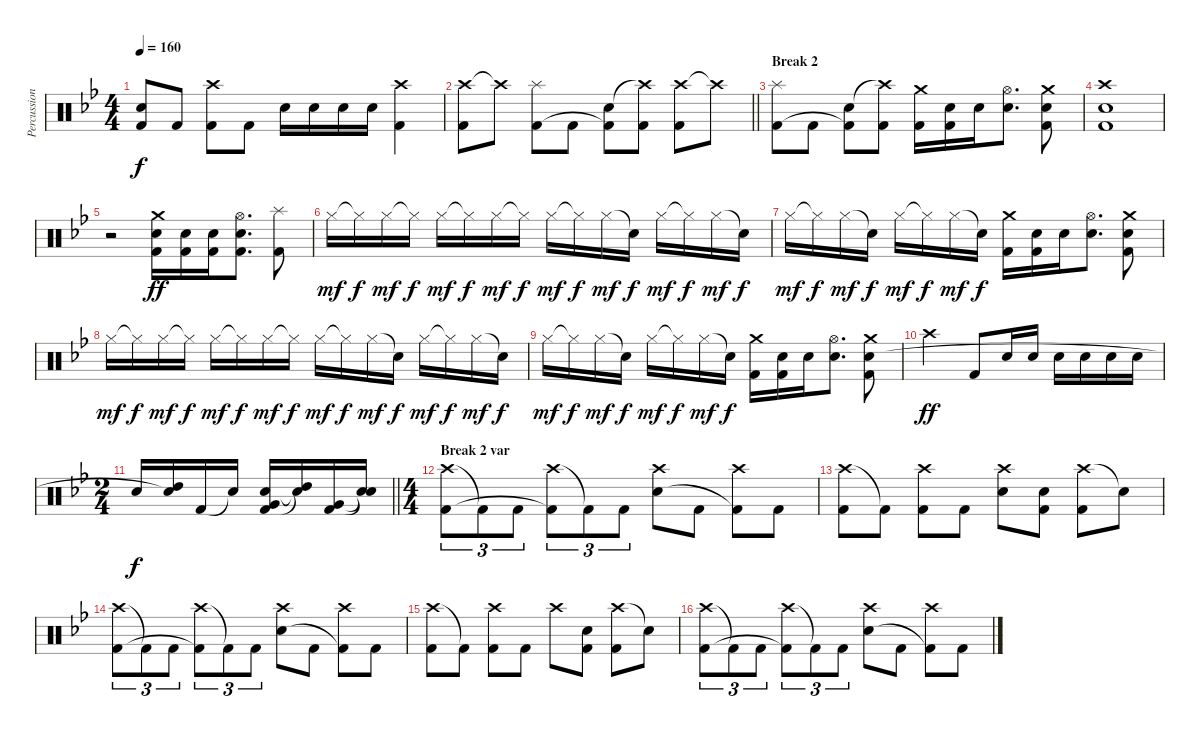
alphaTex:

\track ("Percussion" "Percussion") {instrument percussion}
\staff {score}
\articulation defaults
\ts (4 4)
\tempo 160
\clef neutral
\ks bb
("Electric Snare (hit)" "Kick (hit) 2"{t}).8{dy f} "Kick (hit) 2".8 ("Crash high (hit)" "Kick (hit) 2").8 "Kick (hit) 2".8 "Electric Snare (hit)".16 "Electric Snare (hit)".16 "Electric Snare (hit)".16 "Electric Snare (hit)".16 ("Crash high (hit)" "Kick (hit) 2").4 |
\barLineRight lightlight
("Crash high (hit)" "Kick (hit) 2").8 "Crash high (hit)"{t}.8 ("Splash (hit)" "Kick (hit) 2").8 "Kick (hit) 2".8 ("Electric Snare (hit)" "Kick (hit) 2"{t}).8 ("Crash high (hit)"{t} "Kick (hit) 2").8 ("Crash high (hit)" "Kick (hit) 2").8 "Crash high (hit)"{t}.8 |
\section ("" "Break 2")
("Splash (hit)" "Kick (hit) 2").8 "Kick (hit) 2".8 ("Electric Snare (hit)" "Kick (hit) 2"{t}).8 ("Crash high (hit)"{t} "Kick (hit) 2").8 ("Crash medium (hit)" "Kick (hit) 2").16 ("Kick (hit) 2" "Electric Snare (hit)").16 "Electric Snare (hit)".16 ("Hi-Hat (open)" "Electric Snare (hit)").8{d} ("Crash medium (hit)" "Electric Snare (hit)" "Kick (hit) 2").8 |
("Crash high (hit)" "Electric Snare (hit)" "Kick (hit) 2").1 |
r.2 ("Crash medium (hit)" "Electric Snare (hit)" "Kick (hit) 2").16{dy ff} ("Electric Snare (hit)" "Kick (hit) 2").16 ("Electric Snare (hit)" "Kick (hit) 2").16 ("Hi-Hat (open)" "Electric Snare (hit)" "Kick (hit) 2").8{d} ("Splash (hit)" "Kick (hit) 2").8 |
"Hi-Hat (closed)".16{dy mf} "Hi-Hat (closed)"{t}.16{dy f} "Hi-Hat (closed)".16{dy mf} "Hi-Hat (closed)"{t}.16{dy f} "Hi-Hat (closed)".16{dy mf} "Hi-Hat (closed)"{t}.16{dy f} "Hi-Hat (closed)".16{dy mf} "Hi-Hat (closed)"{t}.16{dy f} "Hi-Hat (closed)".16{dy mf} "Hi-Hat (closed)"{t}.16{dy f} "Hi-Hat (closed)".16{dy mf} "Snare (hit)"{t}.16{dy f} "Hi-Hat (closed)".16{dy mf} "Hi-Hat (closed)"{t}.16{dy f} "Hi-Hat (closed)".16{dy mf} "Snare (hit)"{t}.16{dy f} |
"Hi-Hat (closed)".16{dy mf} "Hi-Hat (closed)"{t}.16{dy f} "Hi-Hat (closed)".16{dy mf} "Snare (hit)"{t}.16{dy f} "Hi-Hat (closed)".16{dy mf} "Hi-Hat (closed)"{t}.16{dy f} "Hi-Hat (closed)".16{dy mf} "Snare (hit)"{t}.16{dy f} ("Crash medium (hit)" "Kick (hit) 2").16 ("Kick (hit) 2" "Electric Snare (hit)").16 "Electric Snare (hit)".16 ("Hi-Hat (open)" "Electric Snare (hit)").8{d} ("Crash medium (hit)" "Electric Snare (hit)" "Kick (hit) 2").8 |
"Hi-Hat (closed)".16{dy mf} "Hi-Hat (closed)"{t}.16{dy f} "Hi-Hat (closed)".16{dy mf} "Hi-Hat (closed)"{t}.16{dy f} "Hi-Hat (closed)".16{dy mf} "Hi-Hat (closed)"{t}.16{dy f} "Hi-Hat (closed)".16{dy mf} "Hi-Hat (closed)"{t}.16{dy f} "Hi-Hat (closed)".16{dy mf} "Hi-Hat (closed)"{t}.16{dy f} "Hi-Hat (closed)".16{dy mf} "Snare (hit)"{t}.16{dy f} "Hi-Hat (closed)".16{dy mf} "Hi-Hat (closed)"{t}.16{dy f} "Hi-Hat (closed)".16{dy mf} "Snare (hit)"{t}.16{dy f} |
"Hi-Hat (closed)".16{dy mf} "Hi-Hat (closed)"{t}.16{dy f} "Hi-Hat (closed)".16{dy mf} "Snare (hit)"{t}.16{dy f} "Hi-Hat (closed)".16{dy mf} "Hi-Hat (closed)"{t}.16{dy f} "Hi-Hat (closed)".16{dy mf} "Electric Snare (hit)"{t}.16{dy f} ("Crash medium (hit)" "Kick (hit) 2").16 ("Kick (hit) 2" "Electric Snare (hit)").16 "Electric Snare (hit)".16 ("Hi-Hat (open)" "Electric Snare (hit)").8{d} ("Crash medium (hit)" "Electric Snare (hit)" "Kick (hit) 2").8 |
"Crash high (hit)".2{dy ff} "Kick (hit) 2".8 "Electric Snare (hit)".16 "Electric Snare (hit)".16 "Electric Snare (hit)".16 "Electric Snare (hit)".16 "Electric Snare (hit)".16 "Electric Snare (hit)".16 |
\ts (2 4)
\barLineRight lightlight "Electric Snare (hit)".16{dy f}
("High Tom (hit)" "Electric Snare (hit)"{t}).16 "Kick (hit) 2".16 "Electric Snare (hit)"{t}.16 ("Kick (hit) 2" "Electric Snare (hit)" "Very Low Tom (hit)").16 ("High Tom (hit)"{t} "Snare (hit)"{t}).16 ("Very Low Tom (hit)" "Kick (hit) 2").16 ("Snare (hit)"{t} "Snare (hit)"{t}).16 |
\ts (4 4)
\section ("" "Break 2 var")
("Crash high (hit)" "Kick (hit) 2").8{tu (3 2)} "Kick (hit) 2"{t}.8{tu (3 2)} "Kick (hit) 2".8{tu (3 2)} ("Crash high (hit)" "Kick (hit) 2"{t}).8{tu (3 2)} "Kick (hit) 2"{t}.8{tu (3 2)} "Kick (hit) 2".8{tu (3 2)} ("Crash high (hit)" "Electric Snare (hit)").8 "Kick (hit) 2".8 ("Crash high (hit)" "Kick (hit) 2"{t}).8 "Kick (hit) 2".8 |
("Crash high (hit)" "Kick (hit) 2").8 "Kick (hit) 2"{t}.8 ("Crash high (hit)" "Kick (hit) 2").8 "Kick (hit) 2".8 ("Crash high (hit)" "Electric Snare (hit)").8 ("Electric Snare (hit)" "Kick (hit) 2").8 ("Crash high (hit)" "Kick (hit) 2").8 "Electric Snare (hit)"{t}.8 |
("Crash high (hit)" "Kick (hit) 2").8{tu (3 2)} "Kick (hit) 2"{t}.8{tu (3 2)} "Kick (hit) 2".8{tu (3 2)} ("Crash high (hit)" "Kick (hit) 2"{t}).8{tu (3 2)} "Kick (hit) 2"{t}.8{tu (3 2)} "Kick (hit) 2".8{tu (3 2)} ("Crash high (hit)" "Electric Snare (hit)").8 "Kick (hit) 2".8 ("Crash high (hit)" "Kick (hit) 2"{t}).8 "Kick (hit) 2".8 |
("Crash high (hit)" "Kick (hit) 2").8 "Kick (hit) 2"{t}.8 ("Crash high (hit)" "Kick (hit) 2").8 "Kick (hit) 2".8 "Crash high (hit)".8 ("Electric Snare (hit)" "Kick (hit) 2").8 ("Crash high (hit)" "Kick (hit) 2").8 "Electric Snare (hit)"{t}.8 |
("Crash high (hit)" "Kick (hit) 2").8{tu (3 2)} "Kick (hit) 2"{t}.8{tu (3 2)} "Kick (hit) 2".8{tu (3 2)} ("Crash high (hit)" "Kick (hit) 2"{t}).8{tu (3 2)} "Kick (hit) 2"{t}.8{tu (3 2)} "Kick (hit) 2".8{tu (3 2)} ("Crash high (hit)" "Electric Snare (hit)").8 "Kick (hit) 2".8 ("Crash high (hit)" "Kick (hit) 2"{t}).8 "Kick (hit) 2".8
